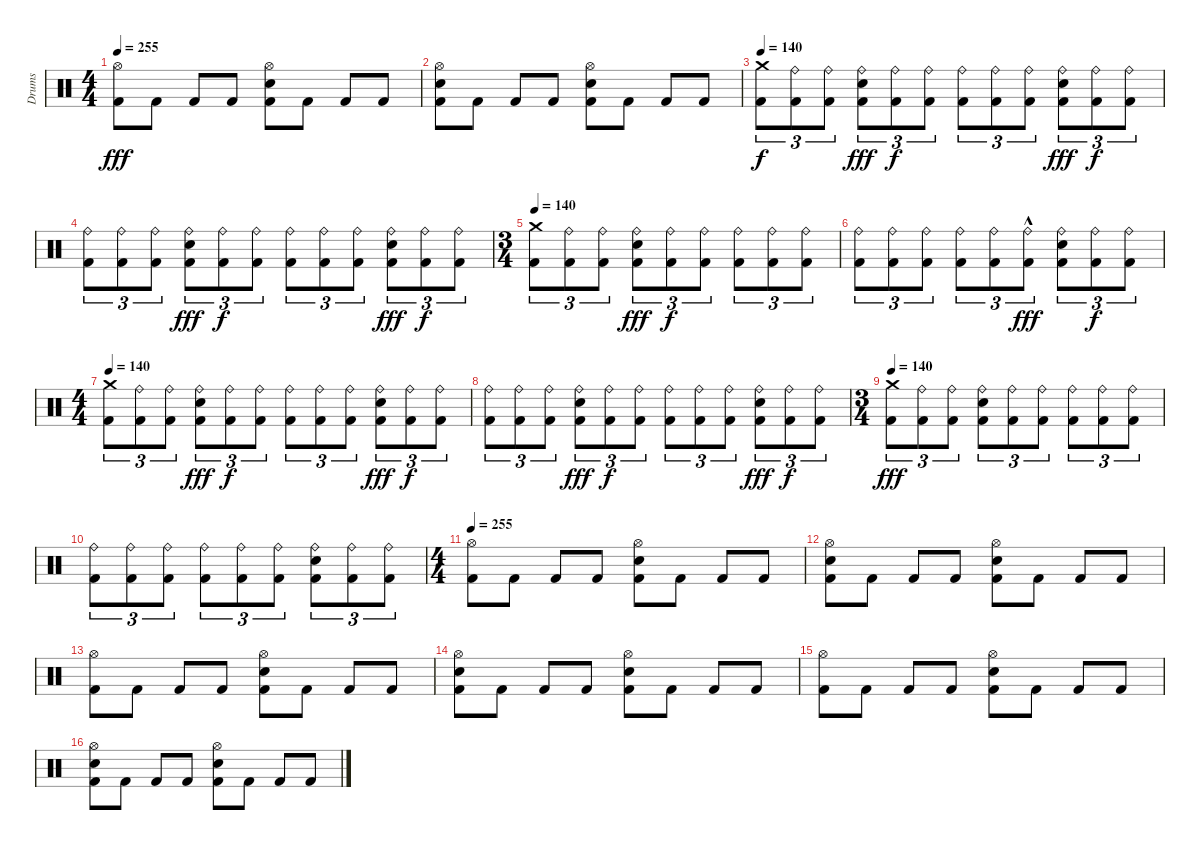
\track ("Drums" "Drums") {instrument percussion}
\staff {score}
\articulation defaults
\ts (4 4)
\tempo 255
\clef neutral
\ks c
("Hi-Hat (open)" "Kick (hit) 2").8{dy fff} "Kick (hit) 2".8 "Kick (hit) 2".8 "Kick (hit) 2".8 ("Hi-Hat (open)" "Electric Snare (hit)" "Kick (hit) 2").8 "Kick (hit) 2".8 "Kick (hit) 2".8 "Kick (hit) 2".8 |
("Hi-Hat (open)" "Electric Snare (hit)" "Kick (hit) 2").8 "Kick (hit) 2".8 "Kick (hit) 2".8 "Kick (hit) 2".8 ("Hi-Hat (open)" "Electric Snare (hit)" "Kick (hit) 2").8 "Kick (hit) 2".8 "Kick (hit) 2".8 "Kick (hit) 2".8 |
\tempo 140
("Crash medium (hit)" "Kick (hit) 2").8{tu (3 2) dy f} ("Ride (bell)" "Kick (hit) 2").8{tu (3 2)} ("Ride (bell)" "Kick (hit) 2").8{tu (3 2)} ("Ride (bell)" "Electric Snare (hit)" "Kick (hit) 2").8{tu (3 2) dy fff} ("Ride (bell)" "Kick (hit) 2").8{tu (3 2) dy f} ("Ride (bell)" "Kick (hit) 2").8{tu (3 2)} ("Ride (bell)" "Kick (hit) 2").8{tu (3 2)} ("Ride (bell)" "Kick (hit) 2").8{tu (3 2)} ("Ride (bell)" "Kick (hit) 2").8{tu (3 2)} ("Ride (bell)" "Electric Snare (hit)" "Kick (hit) 2").8{tu (3 2) dy fff} ("Ride (bell)" "Kick (hit) 2").8{tu (3 2) dy f} ("Ride (bell)" "Kick (hit) 2").8{tu (3 2)} |
("Ride (bell)" "Kick (hit) 2").8{tu (3 2)} ("Ride (bell)" "Kick (hit) 2").8{tu (3 2)} ("Ride (bell)" "Kick (hit) 2").8{tu (3 2)} ("Ride (bell)" "Electric Snare (hit)" "Kick (hit) 2").8{tu (3 2) dy fff} ("Ride (bell)" "Kick (hit) 2").8{tu (3 2) dy f} ("Ride (bell)" "Kick (hit) 2").8{tu (3 2)} ("Ride (bell)" "Kick (hit) 2").8{tu (3 2)} ("Ride (bell)" "Kick (hit) 2").8{tu (3 2)} ("Ride (bell)" "Kick (hit) 2").8{tu (3 2)} ("Ride (bell)" "Electric Snare (hit)" "Kick (hit) 2").8{tu (3 2) dy fff} ("Ride (bell)" "Kick (hit) 2").8{tu (3 2) dy f} ("Ride (bell)" "Kick (hit) 2").8{tu (3 2)} |
\ts (3 4)
\tempo 140
("Crash medium (hit)" "Kick (hit) 2").8{tu (3 2)} ("Ride (bell)" "Kick (hit) 2").8{tu (3 2)} ("Ride (bell)" "Kick (hit) 2").8{tu (3 2)} ("Ride (bell)" "Electric Snare (hit)" "Kick (hit) 2").8{tu (3 2) dy fff} ("Ride (bell)" "Kick (hit) 2").8{tu (3 2) dy f} ("Ride (bell)" "Kick (hit) 2").8{tu (3 2)} ("Ride (bell)" "Kick (hit) 2").8{tu (3 2)} ("Ride (bell)" "Kick (hit) 2").8{tu (3 2)} ("Ride (bell)" "Kick (hit) 2").8{tu (3 2)} |
("Ride (bell)" "Kick (hit) 2").8{tu (3 2)} ("Ride (bell)" "Kick (hit) 2").8{tu (3 2)} ("Ride (bell)" "Kick (hit) 2").8{tu (3 2)} ("Ride (bell)" "Kick (hit) 2").8{tu (3 2)} ("Ride (bell)" "Kick (hit) 2").8{tu (3 2)} ("Ride (bell)" "Kick (hit) 2"{hac}).8{tu (3 2) dy fff} ("Ride (bell)" "Electric Snare (hit)" "Kick (hit) 2").8{tu (3 2)} ("Ride (bell)" "Kick (hit) 2").8{tu (3 2) dy f} ("Ride (bell)" "Kick (hit) 2").8{tu (3 2)} |
\ts (4 4)
\tempo 140
("Crash medium (hit)" "Kick (hit) 2").8{tu (3 2)} ("Ride (bell)" "Kick (hit) 2").8{tu (3 2)} ("Ride (bell)" "Kick (hit) 2").8{tu (3 2)} ("Ride (bell)" "Electric Snare (hit)" "Kick (hit) 2").8{tu (3 2) dy fff} ("Ride (bell)" "Kick (hit) 2").8{tu (3 2) dy f} ("Ride (bell)" "Kick (hit) 2").8{tu (3 2)} ("Ride (bell)" "Kick (hit) 2").8{tu (3 2)} ("Ride (bell)" "Kick (hit) 2").8{tu (3 2)} ("Ride (bell)" "Kick (hit) 2").8{tu (3 2)} ("Ride (bell)" "Electric Snare (hit)" "Kick (hit) 2").8{tu (3 2) dy fff} ("Ride (bell)" "Kick (hit) 2").8{tu (3 2) dy f} ("Ride (bell)" "Kick (hit) 2").8{tu (3 2)} |
("Ride (bell)" "Kick (hit) 2").8{tu (3 2)} ("Ride (bell)" "Kick (hit) 2").8{tu (3 2)} ("Ride (bell)" "Kick (hit) 2").8{tu (3 2)} ("Ride (bell)" "Electric Snare (hit)" "Kick (hit) 2").8{tu (3 2) dy fff} ("Ride (bell)" "Kick (hit) 2").8{tu (3 2) dy f} ("Ride (bell)" "Kick (hit) 2").8{tu (3 2)} ("Ride (bell)" "Kick (hit) 2").8{tu (3 2)} ("Ride (bell)" "Kick (hit) 2").8{tu (3 2)} ("Ride (bell)" "Kick (hit) 2").8{tu (3 2)} ("Ride (bell)" "Electric Snare (hit)" "Kick (hit) 2").8{tu (3 2) dy fff} ("Ride (bell)" "Kick (hit) 2").8{tu (3 2) dy f} ("Ride (bell)" "Kick (hit) 2").8{tu (3 2)} |
\ts (3 4)
\tempo 140
("Crash medium (hit)" "Kick (hit) 2").8{tu (3 2) dy fff} ("Ride (bell)" "Kick (hit) 2").8{tu (3 2)} ("Ride (bell)" "Kick (hit) 2").8{tu (3 2)} ("Ride (bell)" "Electric Snare (hit)" "Kick (hit) 2").8{tu (3 2)} ("Ride (bell)" "Kick (hit) 2").8{tu (3 2)} ("Ride (bell)" "Kick (hit) 2").8{tu (3 2)} ("Ride (bell)" "Kick (hit) 2").8{tu (3 2)} ("Ride (bell)" "Kick (hit) 2").8{tu (3 2)} ("Ride (bell)" "Kick (hit) 2").8{tu (3 2)} |
("Ride (bell)" "Kick (hit) 2").8{tu (3 2)} ("Ride (bell)" "Kick (hit) 2").8{tu (3 2)} ("Ride (bell)" "Kick (hit) 2").8{tu (3 2)} ("Ride (bell)" "Kick (hit) 2").8{tu (3 2)} ("Ride (bell)" "Kick (hit) 2").8{tu (3 2)} ("Ride (bell)" "Kick (hit) 2").8{tu (3 2)} ("Ride (bell)" "Electric Snare (hit)" "Kick (hit) 2").8{tu (3 2)} ("Ride (bell)" "Kick (hit) 2").8{tu (3 2)} ("Ride (bell)" "Kick (hit) 2").8{tu (3 2)} |
\ts (4 4)
\tempo 255
("Hi-Hat (open)" "Kick (hit) 2").8 "Kick (hit) 2".8 "Kick (hit) 2".8 "Kick (hit) 2".8 ("Hi-Hat (open)" "Electric Snare (hit)" "Kick (hit) 2").8 "Kick (hit) 2".8 "Kick (hit) 2".8 "Kick (hit) 2".8 |
("Hi-Hat (open)" "Electric Snare (hit)" "Kick (hit) 2").8 "Kick (hit) 2".8 "Kick (hit) 2".8 "Kick (hit) 2".8 ("Hi-Hat (open)" "Electric Snare (hit)" "Kick (hit) 2").8 "Kick (hit) 2".8 "Kick (hit) 2".8 "Kick (hit) 2".8 |
("Hi-Hat (open)" "Kick (hit) 2").8 "Kick (hit) 2".8 "Kick (hit) 2".8 "Kick (hit) 2".8 ("Hi-Hat (open)" "Electric Snare (hit)" "Kick (hit) 2").8 "Kick (hit) 2".8 "Kick (hit) 2".8 "Kick (hit) 2".8 |
("Hi-Hat (open)" "Electric Snare (hit)" "Kick (hit) 2").8 "Kick (hit) 2".8 "Kick (hit) 2".8 "Kick (hit) 2".8 ("Hi-Hat (open)" "Electric Snare (hit)" "Kick (hit) 2").8 "Kick (hit) 2".8 "Kick (hit) 2".8 "Kick (hit) 2".8 |
("Hi-Hat (open)" "Kick (hit) 2").8 "Kick (hit) 2".8 "Kick (hit) 2".8 "Kick (hit) 2".8 ("Hi-Hat (open)" "Electric Snare (hit)" "Kick (hit) 2").8 "Kick (hit) 2".8 "Kick (hit) 2".8 "Kick (hit) 2".8 |
("Hi-Hat (open)" "Electric Snare (hit)" "Kick (hit) 2").8 "Kick (hit) 2".8 "Kick (hit) 2".8 "Kick (hit) 2".8 ("Hi-Hat (open)" "Electric Snare (hit)" "Kick (hit) 2").8 "Kick (hit) 2".8 "Kick (hit) 2".8 "Kick (hit) 2".8
